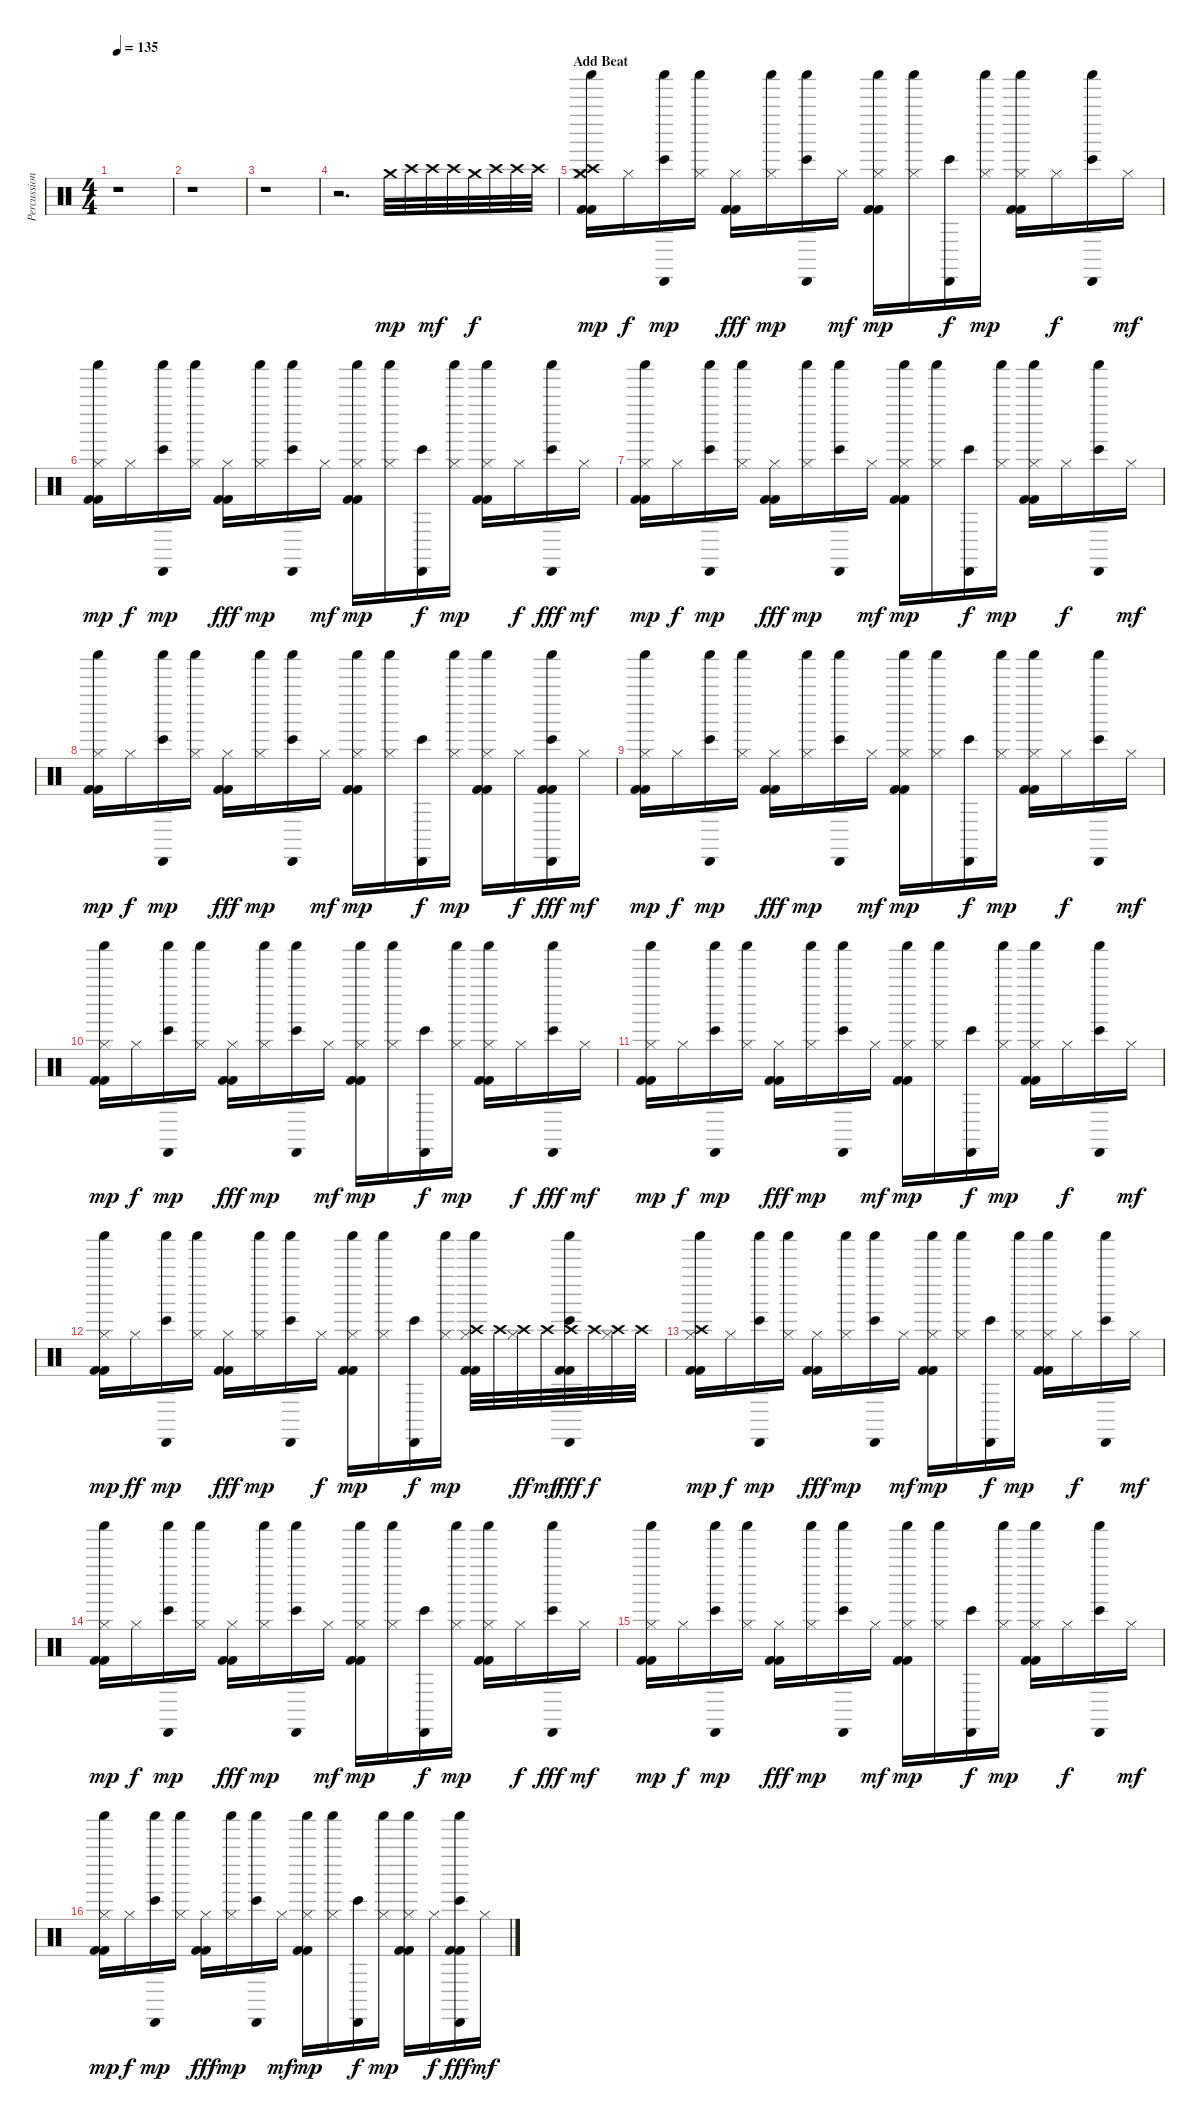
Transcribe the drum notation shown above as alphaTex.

\track ("Percussion" "Percussion") {instrument percussion}
\staff {score}
\articulation defaults
\ts (4 4)
\tempo 135
\clef neutral
\ks c
r.1{dy fff} |
r.1 |
r.1 |
r.2{d} "Crash medium (hit)".32{dy mp} "Crash high (hit)".32 "Crash high (hit)".32{dy mf} "Crash high (hit)".32 "Crash medium (hit)".32{dy f} "Crash high (hit)".32 "Crash high (hit)".32 "Crash high (hit)".32 |
\section ("" "Add Beat")
("Crash medium (hit)" "Hi-Hat (closed)" "Crash high (hit)" "Kick (hit) 2" "Kick (hit) 2" "Shaker (hit)").16{dy mp} "Hi-Hat (closed)".16{dy f} ("Cabasa (hit)" "Bongo High (hit)" "Shaker (hit)").16{dy mp} ("Hi-Hat (closed)" "Shaker (hit)").16 ("Hi-Hat (closed)" "Kick (hit) 2" "Kick (hit) 2").16{dy fff} ("Hi-Hat (closed)" "Shaker (hit)").16{dy mp} ("Cabasa (hit)" "Bongo High (hit)" "Shaker (hit)").16 "Hi-Hat (closed)".16{dy mf} ("Hi-Hat (closed)" "Kick (hit) 2" "Kick (hit) 2" "Shaker (hit)").16{dy mp} ("Hi-Hat (closed)" "Shaker (hit)").16 ("Cabasa (hit)" "Bongo High (hit)").16{dy f} ("Hi-Hat (closed)" "Shaker (hit)").16{dy mp} ("Hi-Hat (closed)" "Kick (hit) 2" "Kick (hit) 2" "Shaker (hit)").16 "Hi-Hat (closed)".16{dy f} ("Cabasa (hit)" "Bongo High (hit)" "Shaker (hit)").16 "Hi-Hat (closed)".16{dy mf} |
("Hi-Hat (closed)" "Kick (hit) 2" "Kick (hit) 2" "Shaker (hit)").16{dy mp} "Hi-Hat (closed)".16{dy f} ("Cabasa (hit)" "Bongo High (hit)" "Shaker (hit)").16{dy mp} ("Hi-Hat (closed)" "Shaker (hit)").16 ("Hi-Hat (closed)" "Kick (hit) 2" "Kick (hit) 2").16{dy fff} ("Hi-Hat (closed)" "Shaker (hit)").16{dy mp} ("Cabasa (hit)" "Bongo High (hit)" "Shaker (hit)").16 "Hi-Hat (closed)".16{dy mf} ("Hi-Hat (closed)" "Kick (hit) 2" "Kick (hit) 2" "Shaker (hit)").16{dy mp} ("Hi-Hat (closed)" "Shaker (hit)").16 ("Cabasa (hit)" "Bongo High (hit)").16{dy f} ("Hi-Hat (closed)" "Shaker (hit)").16{dy mp} ("Hi-Hat (closed)" "Kick (hit) 2" "Kick (hit) 2" "Shaker (hit)").16 "Hi-Hat (closed)".16{dy f} ("Cabasa (hit)" "Bongo High (hit)" "Shaker (hit)").16{dy fff} "Hi-Hat (closed)".16{dy mf} |
("Hi-Hat (closed)" "Kick (hit) 2" "Kick (hit) 2" "Shaker (hit)").16{dy mp} "Hi-Hat (closed)".16{dy f} ("Cabasa (hit)" "Bongo High (hit)" "Shaker (hit)").16{dy mp} ("Hi-Hat (closed)" "Shaker (hit)").16 ("Hi-Hat (closed)" "Kick (hit) 2" "Kick (hit) 2").16{dy fff} ("Hi-Hat (closed)" "Shaker (hit)").16{dy mp} ("Cabasa (hit)" "Bongo High (hit)" "Shaker (hit)").16 "Hi-Hat (closed)".16{dy mf} ("Hi-Hat (closed)" "Kick (hit) 2" "Kick (hit) 2" "Shaker (hit)").16{dy mp} ("Hi-Hat (closed)" "Shaker (hit)").16 ("Cabasa (hit)" "Bongo High (hit)").16{dy f} ("Hi-Hat (closed)" "Shaker (hit)").16{dy mp} ("Hi-Hat (closed)" "Kick (hit) 2" "Kick (hit) 2" "Shaker (hit)").16 "Hi-Hat (closed)".16{dy f} ("Cabasa (hit)" "Bongo High (hit)" "Shaker (hit)").16 "Hi-Hat (closed)".16{dy mf} |
("Hi-Hat (closed)" "Kick (hit) 2" "Kick (hit) 2" "Shaker (hit)").16{dy mp} "Hi-Hat (closed)".16{dy f} ("Cabasa (hit)" "Bongo High (hit)" "Shaker (hit)").16{dy mp} ("Hi-Hat (closed)" "Shaker (hit)").16 ("Hi-Hat (closed)" "Kick (hit) 2" "Kick (hit) 2").16{dy fff} ("Hi-Hat (closed)" "Shaker (hit)").16{dy mp} ("Cabasa (hit)" "Bongo High (hit)" "Shaker (hit)").16 "Hi-Hat (closed)".16{dy mf} ("Hi-Hat (closed)" "Kick (hit) 2" "Kick (hit) 2" "Shaker (hit)").16{dy mp} ("Hi-Hat (closed)" "Shaker (hit)").16 ("Cabasa (hit)" "Bongo High (hit)").16{dy f} ("Hi-Hat (closed)" "Shaker (hit)").16{dy mp} ("Hi-Hat (closed)" "Kick (hit) 2" "Kick (hit) 2" "Shaker (hit)").16 "Hi-Hat (closed)".16{dy f} ("Cabasa (hit)" "Bongo High (hit)" "Kick (hit) 2" "Kick (hit) 2" "Shaker (hit)").16{dy fff} "Hi-Hat (closed)".16{dy mf} |
("Hi-Hat (closed)" "Kick (hit) 2" "Kick (hit) 2" "Shaker (hit)").16{dy mp} "Hi-Hat (closed)".16{dy f} ("Cabasa (hit)" "Bongo High (hit)" "Shaker (hit)").16{dy mp} ("Hi-Hat (closed)" "Shaker (hit)").16 ("Hi-Hat (closed)" "Kick (hit) 2" "Kick (hit) 2").16{dy fff} ("Hi-Hat (closed)" "Shaker (hit)").16{dy mp} ("Cabasa (hit)" "Bongo High (hit)" "Shaker (hit)").16 "Hi-Hat (closed)".16{dy mf} ("Hi-Hat (closed)" "Kick (hit) 2" "Kick (hit) 2" "Shaker (hit)").16{dy mp} ("Hi-Hat (closed)" "Shaker (hit)").16 ("Cabasa (hit)" "Bongo High (hit)").16{dy f} ("Hi-Hat (closed)" "Shaker (hit)").16{dy mp} ("Hi-Hat (closed)" "Kick (hit) 2" "Kick (hit) 2" "Shaker (hit)").16 "Hi-Hat (closed)".16{dy f} ("Cabasa (hit)" "Bongo High (hit)" "Shaker (hit)").16 "Hi-Hat (closed)".16{dy mf} |
("Hi-Hat (closed)" "Kick (hit) 2" "Kick (hit) 2" "Shaker (hit)").16{dy mp} "Hi-Hat (closed)".16{dy f} ("Cabasa (hit)" "Bongo High (hit)" "Shaker (hit)").16{dy mp} ("Hi-Hat (closed)" "Shaker (hit)").16 ("Hi-Hat (closed)" "Kick (hit) 2" "Kick (hit) 2").16{dy fff} ("Hi-Hat (closed)" "Shaker (hit)").16{dy mp} ("Cabasa (hit)" "Bongo High (hit)" "Shaker (hit)").16 "Hi-Hat (closed)".16{dy mf} ("Hi-Hat (closed)" "Kick (hit) 2" "Kick (hit) 2" "Shaker (hit)").16{dy mp} ("Hi-Hat (closed)" "Shaker (hit)").16 ("Cabasa (hit)" "Bongo High (hit)").16{dy f} ("Hi-Hat (closed)" "Shaker (hit)").16{dy mp} ("Hi-Hat (closed)" "Kick (hit) 2" "Kick (hit) 2" "Shaker (hit)").16 "Hi-Hat (closed)".16{dy f} ("Cabasa (hit)" "Bongo High (hit)" "Shaker (hit)").16{dy fff} "Hi-Hat (closed)".16{dy mf} |
("Hi-Hat (closed)" "Kick (hit) 2" "Kick (hit) 2" "Shaker (hit)").16{dy mp} "Hi-Hat (closed)".16{dy f} ("Cabasa (hit)" "Bongo High (hit)" "Shaker (hit)").16{dy mp} ("Hi-Hat (closed)" "Shaker (hit)").16 ("Hi-Hat (closed)" "Kick (hit) 2" "Kick (hit) 2").16{dy fff} ("Hi-Hat (closed)" "Shaker (hit)").16{dy mp} ("Cabasa (hit)" "Bongo High (hit)" "Shaker (hit)").16 "Hi-Hat (closed)".16{dy mf} ("Hi-Hat (closed)" "Kick (hit) 2" "Kick (hit) 2" "Shaker (hit)").16{dy mp} ("Hi-Hat (closed)" "Shaker (hit)").16 ("Cabasa (hit)" "Bongo High (hit)").16{dy f} ("Hi-Hat (closed)" "Shaker (hit)").16{dy mp} ("Hi-Hat (closed)" "Kick (hit) 2" "Kick (hit) 2" "Shaker (hit)").16 "Hi-Hat (closed)".16{dy f} ("Cabasa (hit)" "Bongo High (hit)" "Shaker (hit)").16 "Hi-Hat (closed)".16{dy mf} |
("Hi-Hat (closed)" "Kick (hit) 2" "Kick (hit) 2" "Shaker (hit)").16{dy mp} "Hi-Hat (closed)".16{dy ff} ("Cabasa (hit)" "Bongo High (hit)" "Shaker (hit)").16{dy mp} ("Hi-Hat (closed)" "Shaker (hit)").16 ("Hi-Hat (closed)" "Kick (hit) 2" "Kick (hit) 2").16{dy fff} ("Hi-Hat (closed)" "Shaker (hit)").16{dy mp} ("Cabasa (hit)" "Bongo High (hit)" "Shaker (hit)").16 "Hi-Hat (closed)".16{dy f} ("Hi-Hat (closed)" "Kick (hit) 2" "Kick (hit) 2" "Shaker (hit)").16{dy mp} ("Hi-Hat (closed)" "Shaker (hit)").16 ("Cabasa (hit)" "Bongo High (hit)").16{dy f} ("Hi-Hat (closed)" "Shaker (hit)").16{dy mp} ("Crash high (hit)" "Hi-Hat (closed)" "Kick (hit) 2" "Kick (hit) 2" "Shaker (hit)").32 "Crash high (hit)".32 ("Crash high (hit)" "Hi-Hat (closed)").32{dy ff} "Crash high (hit)".32{dy mf} ("Crash high (hit)" "Cabasa (hit)" "Bongo High (hit)" "Kick (hit) 2" "Kick (hit) 2" "Shaker (hit)").32{dy fff} "Crash high (hit)".32{dy f} ("Crash high (hit)" "Hi-Hat (closed)").32 "Crash high (hit)".32 |
("Crash high (hit)" "Hi-Hat (closed)" "Kick (hit) 2" "Kick (hit) 2" "Shaker (hit)").16{dy mp} "Hi-Hat (closed)".16{dy f} ("Cabasa (hit)" "Bongo High (hit)" "Shaker (hit)").16{dy mp} ("Hi-Hat (closed)" "Shaker (hit)").16 ("Hi-Hat (closed)" "Kick (hit) 2" "Kick (hit) 2").16{dy fff} ("Hi-Hat (closed)" "Shaker (hit)").16{dy mp} ("Cabasa (hit)" "Bongo High (hit)" "Shaker (hit)").16 "Hi-Hat (closed)".16{dy mf} ("Hi-Hat (closed)" "Kick (hit) 2" "Kick (hit) 2" "Shaker (hit)").16{dy mp} ("Hi-Hat (closed)" "Shaker (hit)").16 ("Cabasa (hit)" "Bongo High (hit)").16{dy f} ("Hi-Hat (closed)" "Shaker (hit)").16{dy mp} ("Hi-Hat (closed)" "Kick (hit) 2" "Kick (hit) 2" "Shaker (hit)").16 "Hi-Hat (closed)".16{dy f} ("Cabasa (hit)" "Bongo High (hit)" "Shaker (hit)").16 "Hi-Hat (closed)".16{dy mf} |
("Hi-Hat (closed)" "Kick (hit) 2" "Kick (hit) 2" "Shaker (hit)").16{dy mp} "Hi-Hat (closed)".16{dy f} ("Cabasa (hit)" "Bongo High (hit)" "Shaker (hit)").16{dy mp} ("Hi-Hat (closed)" "Shaker (hit)").16 ("Hi-Hat (closed)" "Kick (hit) 2" "Kick (hit) 2").16{dy fff} ("Hi-Hat (closed)" "Shaker (hit)").16{dy mp} ("Cabasa (hit)" "Bongo High (hit)" "Shaker (hit)").16 "Hi-Hat (closed)".16{dy mf} ("Hi-Hat (closed)" "Kick (hit) 2" "Kick (hit) 2" "Shaker (hit)").16{dy mp} ("Hi-Hat (closed)" "Shaker (hit)").16 ("Cabasa (hit)" "Bongo High (hit)").16{dy f} ("Hi-Hat (closed)" "Shaker (hit)").16{dy mp} ("Hi-Hat (closed)" "Kick (hit) 2" "Kick (hit) 2" "Shaker (hit)").16 "Hi-Hat (closed)".16{dy f} ("Cabasa (hit)" "Bongo High (hit)" "Shaker (hit)").16{dy fff} "Hi-Hat (closed)".16{dy mf} |
("Hi-Hat (closed)" "Kick (hit) 2" "Kick (hit) 2" "Shaker (hit)").16{dy mp} "Hi-Hat (closed)".16{dy f} ("Cabasa (hit)" "Bongo High (hit)" "Shaker (hit)").16{dy mp} ("Hi-Hat (closed)" "Shaker (hit)").16 ("Hi-Hat (closed)" "Kick (hit) 2" "Kick (hit) 2").16{dy fff} ("Hi-Hat (closed)" "Shaker (hit)").16{dy mp} ("Cabasa (hit)" "Bongo High (hit)" "Shaker (hit)").16 "Hi-Hat (closed)".16{dy mf} ("Hi-Hat (closed)" "Kick (hit) 2" "Kick (hit) 2" "Shaker (hit)").16{dy mp} ("Hi-Hat (closed)" "Shaker (hit)").16 ("Cabasa (hit)" "Bongo High (hit)").16{dy f} ("Hi-Hat (closed)" "Shaker (hit)").16{dy mp} ("Hi-Hat (closed)" "Kick (hit) 2" "Kick (hit) 2" "Shaker (hit)").16 "Hi-Hat (closed)".16{dy f} ("Cabasa (hit)" "Bongo High (hit)" "Shaker (hit)").16 "Hi-Hat (closed)".16{dy mf} |
("Hi-Hat (closed)" "Kick (hit) 2" "Kick (hit) 2" "Shaker (hit)").16{dy mp} "Hi-Hat (closed)".16{dy f} ("Cabasa (hit)" "Bongo High (hit)" "Shaker (hit)").16{dy mp} ("Hi-Hat (closed)" "Shaker (hit)").16 ("Hi-Hat (closed)" "Kick (hit) 2" "Kick (hit) 2").16{dy fff} ("Hi-Hat (closed)" "Shaker (hit)").16{dy mp} ("Cabasa (hit)" "Bongo High (hit)" "Shaker (hit)").16 "Hi-Hat (closed)".16{dy mf} ("Hi-Hat (closed)" "Kick (hit) 2" "Kick (hit) 2" "Shaker (hit)").16{dy mp} ("Hi-Hat (closed)" "Shaker (hit)").16 ("Cabasa (hit)" "Bongo High (hit)").16{dy f} ("Hi-Hat (closed)" "Shaker (hit)").16{dy mp} ("Hi-Hat (closed)" "Kick (hit) 2" "Kick (hit) 2" "Shaker (hit)").16 "Hi-Hat (closed)".16{dy f} ("Cabasa (hit)" "Bongo High (hit)" "Kick (hit) 2" "Kick (hit) 2" "Shaker (hit)").16{dy fff} "Hi-Hat (closed)".16{dy mf}
